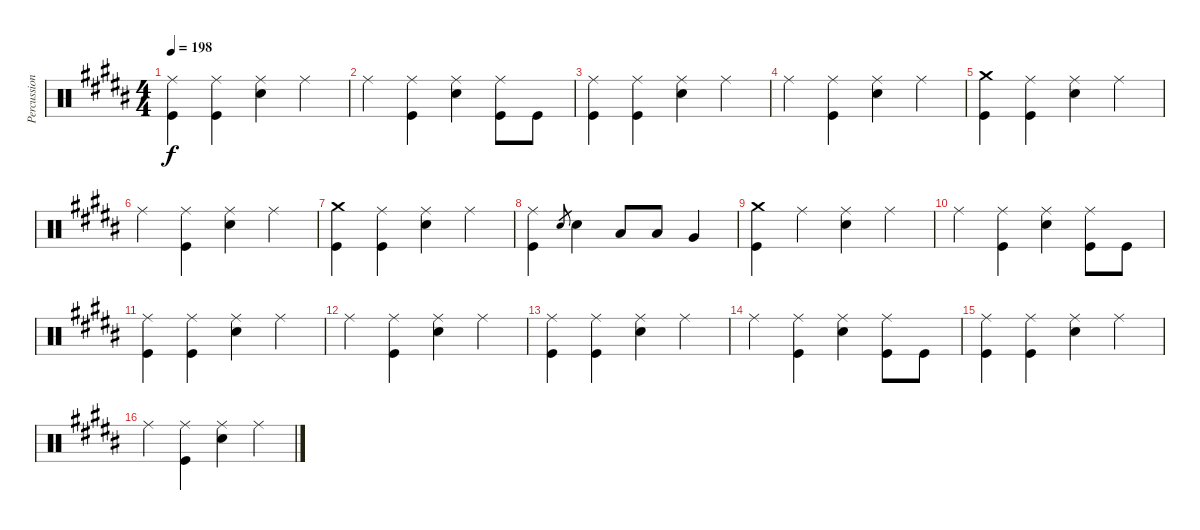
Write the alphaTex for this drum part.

\track ("Percussion" "Percussion") {instrument percussion}
\staff {score}
\articulation defaults
\ts (4 4)
\tempo 198
\clef neutral
\ks b
("Ride (middle)" "Kick (hit)").4{dy f} ("Ride (middle)" "Kick (hit)").4 ("Ride (middle)" "Electric Snare (hit)").4 "Ride (middle)".4 |
"Ride (middle)".4 ("Ride (middle)" "Kick (hit)").4 ("Ride (middle)" "Electric Snare (hit)").4 ("Ride (middle)" "Kick (hit)").8 "Kick (hit)".8 |
("Ride (middle)" "Kick (hit)").4 ("Ride (middle)" "Kick (hit)").4 ("Ride (middle)" "Electric Snare (hit)").4 "Ride (middle)".4 |
"Ride (middle)".4 ("Ride (middle)" "Kick (hit)").4 ("Ride (middle)" "Electric Snare (hit)").4 "Ride (middle)".4 |
("Crash medium (hit)" "Kick (hit)").4 ("Ride (middle)" "Kick (hit)").4 ("Ride (middle)" "Electric Snare (hit)").4 "Ride (middle)".4 |
"Ride (middle)".4 ("Ride (middle)" "Kick (hit)").4 ("Ride (middle)" "Electric Snare (hit)").4 "Ride (middle)".4 |
("Crash medium (hit)" "Kick (hit)").4 ("Ride (middle)" "Kick (hit)").4 ("Ride (middle)" "Electric Snare (hit)").4 "Ride (middle)".4 |
("Ride (middle)" "Kick (hit)").4 "Electric Snare (hit)".8{gr} "Electric Snare (hit)".4 "Low Tom (hit)".8 "Low Tom (hit)".8 "Very Low Tom (hit)".4 |
("Crash medium (hit)" "Kick (hit)").4 "Ride (middle)".4 ("Ride (middle)" "Electric Snare (hit)").4 "Ride (middle)".4 |
"Ride (middle)".4 ("Ride (middle)" "Kick (hit)").4 ("Ride (middle)" "Electric Snare (hit)").4 ("Ride (middle)" "Kick (hit)").8 "Kick (hit)".8 |
("Ride (middle)" "Kick (hit)").4 ("Ride (middle)" "Kick (hit)").4 ("Ride (middle)" "Electric Snare (hit)").4 "Ride (middle)".4 |
"Ride (middle)".4 ("Ride (middle)" "Kick (hit)").4 ("Ride (middle)" "Electric Snare (hit)").4 "Ride (middle)".4 |
("Ride (middle)" "Kick (hit)").4 ("Ride (middle)" "Kick (hit)").4 ("Ride (middle)" "Electric Snare (hit)").4 "Ride (middle)".4 |
"Ride (middle)".4 ("Ride (middle)" "Kick (hit)").4 ("Ride (middle)" "Electric Snare (hit)").4 ("Ride (middle)" "Kick (hit)").8 "Kick (hit)".8 |
("Ride (middle)" "Kick (hit)").4 ("Ride (middle)" "Kick (hit)").4 ("Ride (middle)" "Electric Snare (hit)").4 "Ride (middle)".4 |
"Ride (middle)".4 ("Ride (middle)" "Kick (hit)").4 ("Ride (middle)" "Electric Snare (hit)").4 "Ride (middle)".4
